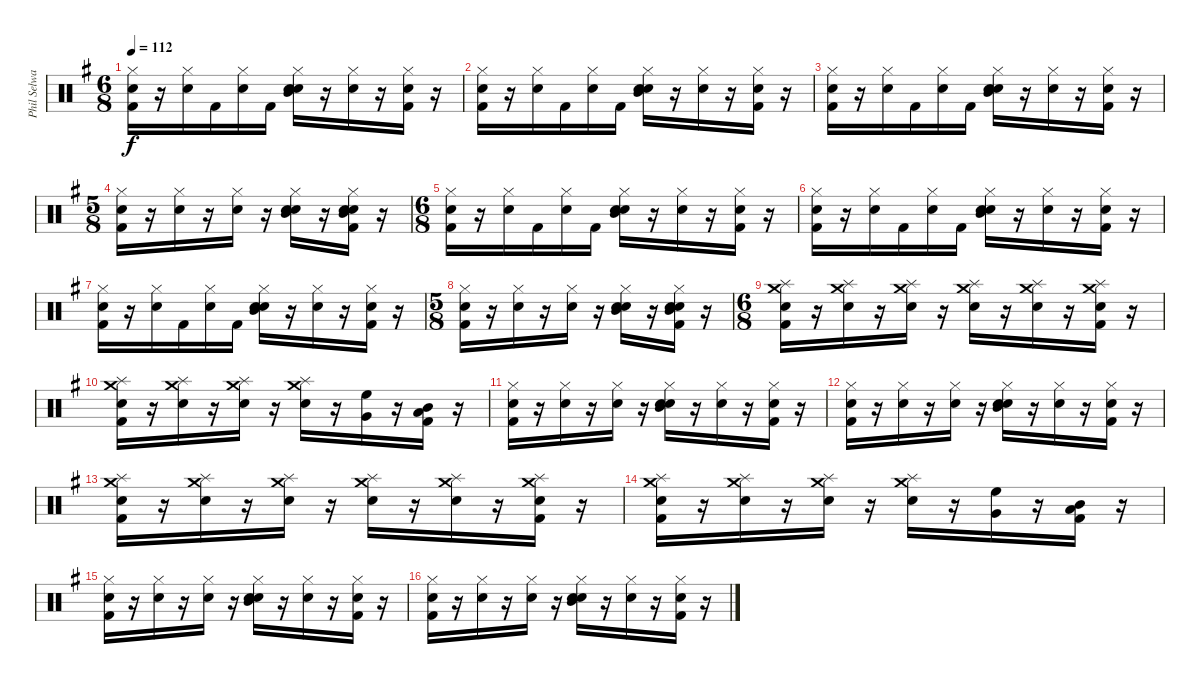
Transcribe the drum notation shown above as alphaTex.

\track ("Phil Selway" "Phil Selwa") {instrument percussion}
\staff {score}
\articulation defaults
\ts (6 8)
\tempo 112
\clef neutral
\ks g
("Hi-Hat (closed)" "Kick (hit) 2" "Snare (hit) 2").16{dy f} r.16 ("Hi-Hat (closed)" "Snare (hit) 2").16 "Kick (hit) 2".16 ("Hi-Hat (closed)" "Snare (hit) 2").16 "Kick (hit) 2".16 ("Hi-Hat (closed)" "Snare (hit) 2" "Mid Tom (hit)" "Electric Snare (hit)").16 r.16 ("Hi-Hat (closed)" "Snare (hit) 2").16 r.16 ("Hi-Hat (closed)" "Snare (hit) 2" "Kick (hit) 2").16 r.16 |
("Hi-Hat (closed)" "Kick (hit) 2" "Snare (hit) 2").16 r.16 ("Hi-Hat (closed)" "Snare (hit) 2").16 "Kick (hit) 2".16 ("Hi-Hat (closed)" "Snare (hit) 2").16 "Kick (hit) 2".16 ("Hi-Hat (closed)" "Snare (hit) 2" "Mid Tom (hit)" "Electric Snare (hit)").16 r.16 ("Hi-Hat (closed)" "Snare (hit) 2").16 r.16 ("Hi-Hat (closed)" "Snare (hit) 2" "Kick (hit) 2").16 r.16 |
("Hi-Hat (closed)" "Kick (hit) 2" "Snare (hit) 2").16 r.16 ("Hi-Hat (closed)" "Snare (hit) 2").16 "Kick (hit) 2".16 ("Hi-Hat (closed)" "Snare (hit) 2").16 "Kick (hit) 2".16 ("Hi-Hat (closed)" "Snare (hit) 2" "Mid Tom (hit)" "Electric Snare (hit)").16 r.16 ("Hi-Hat (closed)" "Snare (hit) 2").16 r.16 ("Hi-Hat (closed)" "Snare (hit) 2" "Kick (hit) 2").16 r.16 |
\ts (5 8)
("Hi-Hat (closed)" "Snare (hit) 2" "Kick (hit) 2").16 r.16 ("Hi-Hat (closed)" "Snare (hit) 2").16 r.16 ("Hi-Hat (closed)" "Snare (hit) 2").16 r.16 ("Hi-Hat (closed)" "Snare (hit) 2" "Mid Tom (hit)" "Electric Snare (hit)").16 r.16 ("Hi-Hat (closed)" "Snare (hit) 2" "Kick (hit) 2" "Mid Tom (hit)" "Electric Snare (hit)").16 r.16 |
\ts (6 8)
("Hi-Hat (closed)" "Kick (hit) 2" "Snare (hit) 2").16 r.16 ("Hi-Hat (closed)" "Snare (hit) 2").16 "Kick (hit) 2".16 ("Hi-Hat (closed)" "Snare (hit) 2").16 "Kick (hit) 2".16 ("Hi-Hat (closed)" "Snare (hit) 2" "Mid Tom (hit)" "Electric Snare (hit)").16 r.16 ("Hi-Hat (closed)" "Snare (hit) 2").16 r.16 ("Hi-Hat (closed)" "Snare (hit) 2" "Kick (hit) 2").16 r.16 |
("Hi-Hat (closed)" "Kick (hit) 2" "Snare (hit) 2").16 r.16 ("Hi-Hat (closed)" "Snare (hit) 2").16 "Kick (hit) 2".16 ("Hi-Hat (closed)" "Snare (hit) 2").16 "Kick (hit) 2".16 ("Hi-Hat (closed)" "Snare (hit) 2" "Mid Tom (hit)" "Electric Snare (hit)").16 r.16 ("Hi-Hat (closed)" "Snare (hit) 2").16 r.16 ("Hi-Hat (closed)" "Snare (hit) 2" "Kick (hit) 2").16 r.16 |
("Hi-Hat (closed)" "Kick (hit) 2" "Snare (hit) 2").16 r.16 ("Hi-Hat (closed)" "Snare (hit) 2").16 "Kick (hit) 2".16 ("Hi-Hat (closed)" "Snare (hit) 2").16 "Kick (hit) 2".16 ("Hi-Hat (closed)" "Snare (hit) 2" "Mid Tom (hit)" "Electric Snare (hit)").16 r.16 ("Hi-Hat (closed)" "Snare (hit) 2").16 r.16 ("Hi-Hat (closed)" "Snare (hit) 2" "Kick (hit) 2").16 r.16 |
\ts (5 8)
("Hi-Hat (closed)" "Snare (hit) 2" "Kick (hit) 2").16 r.16 ("Hi-Hat (closed)" "Snare (hit) 2").16 r.16 ("Hi-Hat (closed)" "Snare (hit) 2").16 r.16 ("Hi-Hat (closed)" "Snare (hit) 2" "Mid Tom (hit)" "Electric Snare (hit)").16 r.16 ("Hi-Hat (closed)" "Snare (hit) 2" "Kick (hit) 2" "Mid Tom (hit)" "Electric Snare (hit)").16 r.16 |
\ts (6 8)
("Crash medium (hit)" "Kick (hit) 2" "Snare (hit) 2" "Splash (hit)").16 r.16 ("Crash medium (hit)" "Snare (hit) 2" "Splash (hit)").16 r.16 ("Crash medium (hit)" "Snare (hit) 2" "Splash (hit)").16 r.16 ("Crash medium (hit)" "Snare (hit) 2" "Splash (hit)").16 r.16 ("Crash medium (hit)" "Snare (hit) 2" "Splash (hit)").16 r.16 ("Crash medium (hit)" "Snare (hit) 2" "Kick (hit) 2" "Splash (hit)").16 r.16 |
("Crash medium (hit)" "Kick (hit) 2" "Snare (hit) 2" "Splash (hit)").16 r.16 ("Crash medium (hit)" "Snare (hit) 2" "Splash (hit)").16 r.16 ("Crash medium (hit)" "Snare (hit) 2" "Splash (hit)").16 r.16 ("Crash medium (hit)" "Snare (hit) 2" "Splash (hit)").16 r.16 ("Very Low Tom (hit)" "High Floor Tom (hit)").16 r.16 ("Kick (hit) 2" "Low Tom (hit)" "Mid Tom (hit)").16 r.16 |
("Hi-Hat (closed)" "Kick (hit) 2" "Snare (hit) 2").16 r.16 ("Hi-Hat (closed)" "Snare (hit) 2").16 r.16 ("Hi-Hat (closed)" "Snare (hit) 2").16 r.16 ("Hi-Hat (closed)" "Snare (hit) 2" "Mid Tom (hit)" "Electric Snare (hit)").16 r.16 ("Hi-Hat (closed)" "Snare (hit) 2").16 r.16 ("Hi-Hat (closed)" "Snare (hit) 2" "Kick (hit) 2").16 r.16 |
("Hi-Hat (closed)" "Kick (hit) 2" "Snare (hit) 2").16 r.16 ("Hi-Hat (closed)" "Snare (hit) 2").16 r.16 ("Hi-Hat (closed)" "Snare (hit) 2").16 r.16 ("Hi-Hat (closed)" "Snare (hit) 2" "Mid Tom (hit)" "Electric Snare (hit)").16 r.16 ("Hi-Hat (closed)" "Snare (hit) 2").16 r.16 ("Hi-Hat (closed)" "Snare (hit) 2" "Kick (hit) 2").16 r.16 |
("Crash medium (hit)" "Kick (hit) 2" "Snare (hit) 2" "Splash (hit)").16 r.16 ("Crash medium (hit)" "Snare (hit) 2" "Splash (hit)").16 r.16 ("Crash medium (hit)" "Snare (hit) 2" "Splash (hit)").16 r.16 ("Crash medium (hit)" "Snare (hit) 2" "Splash (hit)").16 r.16 ("Crash medium (hit)" "Snare (hit) 2" "Splash (hit)").16 r.16 ("Crash medium (hit)" "Snare (hit) 2" "Kick (hit) 2" "Splash (hit)").16 r.16 |
("Crash medium (hit)" "Kick (hit) 2" "Snare (hit) 2" "Splash (hit)").16 r.16 ("Crash medium (hit)" "Snare (hit) 2" "Splash (hit)").16 r.16 ("Crash medium (hit)" "Snare (hit) 2" "Splash (hit)").16 r.16 ("Crash medium (hit)" "Snare (hit) 2" "Splash (hit)").16 r.16 ("Very Low Tom (hit)" "High Floor Tom (hit)").16 r.16 ("Kick (hit) 2" "Low Tom (hit)" "Mid Tom (hit)").16 r.16 |
("Hi-Hat (closed)" "Kick (hit) 2" "Snare (hit) 2").16 r.16 ("Hi-Hat (closed)" "Snare (hit) 2").16 r.16 ("Hi-Hat (closed)" "Snare (hit) 2").16 r.16 ("Hi-Hat (closed)" "Snare (hit) 2" "Mid Tom (hit)" "Electric Snare (hit)").16 r.16 ("Hi-Hat (closed)" "Snare (hit) 2").16 r.16 ("Hi-Hat (closed)" "Snare (hit) 2" "Kick (hit) 2").16 r.16 |
("Hi-Hat (closed)" "Kick (hit) 2" "Snare (hit) 2").16 r.16 ("Hi-Hat (closed)" "Snare (hit) 2").16 r.16 ("Hi-Hat (closed)" "Snare (hit) 2").16 r.16 ("Hi-Hat (closed)" "Snare (hit) 2" "Mid Tom (hit)" "Electric Snare (hit)").16 r.16 ("Hi-Hat (closed)" "Snare (hit) 2").16 r.16 ("Hi-Hat (closed)" "Snare (hit) 2" "Kick (hit) 2").16 r.16
